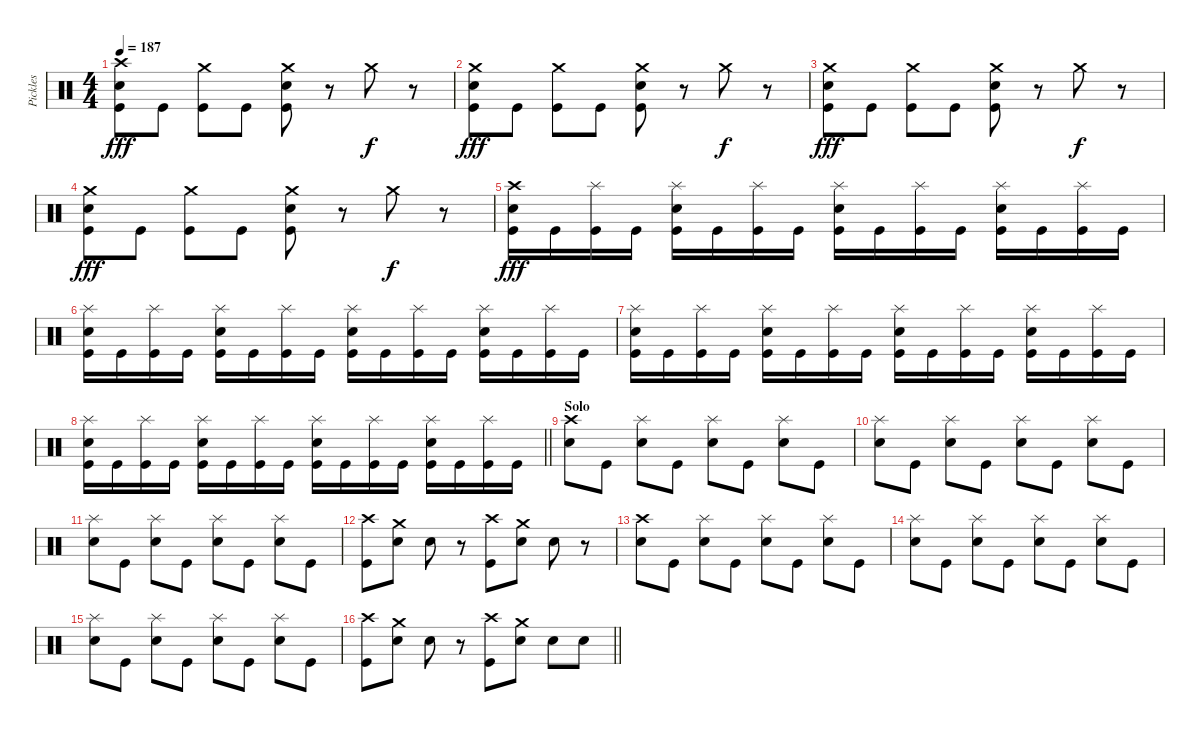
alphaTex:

\track ("Pickles" "Pickles") {instrument percussion}
\staff {score}
\articulation defaults
\ts (4 4)
\tempo 187
\clef neutral
\ks c
("Crash high (hit)" "Snare (hit) 2" "Kick (hit)").8{dy fff} "Kick (hit)".8 ("Crash medium (hit)" "Kick (hit)").8 "Kick (hit)".8 ("Crash medium (hit)" "Snare (hit) 2" "Kick (hit)").8 r.8 "Crash medium (hit)".8{dy f} r.8 |
("Crash medium (hit)" "Snare (hit) 2" "Kick (hit)").8{dy fff} "Kick (hit)".8 ("Crash medium (hit)" "Kick (hit)").8 "Kick (hit)".8 ("Crash medium (hit)" "Snare (hit) 2" "Kick (hit)").8 r.8 "Crash medium (hit)".8{dy f} r.8 |
("Crash medium (hit)" "Snare (hit) 2" "Kick (hit)").8{dy fff} "Kick (hit)".8 ("Crash medium (hit)" "Kick (hit)").8 "Kick (hit)".8 ("Crash medium (hit)" "Snare (hit) 2" "Kick (hit)").8 r.8 "Crash medium (hit)".8{dy f} r.8 |
("Crash medium (hit)" "Snare (hit) 2" "Kick (hit)").8{dy fff} "Kick (hit)".8 ("Crash medium (hit)" "Kick (hit)").8 "Kick (hit)".8 ("Crash medium (hit)" "Snare (hit) 2" "Kick (hit)").8 r.8 "Crash medium (hit)".8{dy f} r.8 |
("Crash high (hit)" "Snare (hit) 2" "Kick (hit)").16{dy fff} "Kick (hit)".16 ("Splash (hit)" "Kick (hit)").16 "Kick (hit)".16 ("Splash (hit)" "Snare (hit) 2" "Kick (hit)").16 "Kick (hit)".16 ("Splash (hit)" "Kick (hit)").16 "Kick (hit)".16 ("Splash (hit)" "Snare (hit) 2" "Kick (hit)").16 "Kick (hit)".16 ("Splash (hit)" "Kick (hit)").16 "Kick (hit)".16 ("Splash (hit)" "Snare (hit) 2" "Kick (hit)").16 "Kick (hit)".16 ("Splash (hit)" "Kick (hit)").16 "Kick (hit)".16 |
("Splash (hit)" "Snare (hit) 2" "Kick (hit)").16 "Kick (hit)".16 ("Splash (hit)" "Kick (hit)").16 "Kick (hit)".16 ("Splash (hit)" "Snare (hit) 2" "Kick (hit)").16 "Kick (hit)".16 ("Splash (hit)" "Kick (hit)").16 "Kick (hit)".16 ("Splash (hit)" "Snare (hit) 2" "Kick (hit)").16 "Kick (hit)".16 ("Splash (hit)" "Kick (hit)").16 "Kick (hit)".16 ("Splash (hit)" "Snare (hit) 2" "Kick (hit)").16 "Kick (hit)".16 ("Splash (hit)" "Kick (hit)").16 "Kick (hit)".16 |
("Splash (hit)" "Snare (hit) 2" "Kick (hit)").16 "Kick (hit)".16 ("Splash (hit)" "Kick (hit)").16 "Kick (hit)".16 ("Splash (hit)" "Snare (hit) 2" "Kick (hit)").16 "Kick (hit)".16 ("Splash (hit)" "Kick (hit)").16 "Kick (hit)".16 ("Splash (hit)" "Snare (hit) 2" "Kick (hit)").16 "Kick (hit)".16 ("Splash (hit)" "Kick (hit)").16 "Kick (hit)".16 ("Splash (hit)" "Snare (hit) 2" "Kick (hit)").16 "Kick (hit)".16 ("Splash (hit)" "Kick (hit)").16 "Kick (hit)".16 |
\barLineRight lightlight
("Splash (hit)" "Snare (hit) 2" "Kick (hit)").16 "Kick (hit)".16 ("Splash (hit)" "Kick (hit)").16 "Kick (hit)".16 ("Splash (hit)" "Snare (hit) 2" "Kick (hit)").16 "Kick (hit)".16 ("Splash (hit)" "Kick (hit)").16 "Kick (hit)".16 ("Splash (hit)" "Snare (hit) 2" "Kick (hit)").16 "Kick (hit)".16 ("Splash (hit)" "Kick (hit)").16 "Kick (hit)".16 ("Splash (hit)" "Snare (hit) 2" "Kick (hit)").16 "Kick (hit)".16 ("Splash (hit)" "Kick (hit)").16 "Kick (hit)".16 |
\section ("" "Solo")
("Crash high (hit)" "Snare (hit) 2").8 "Kick (hit)".8 ("Splash (hit)" "Snare (hit) 2").8 "Kick (hit)".8 ("Splash (hit)" "Snare (hit) 2").8 "Kick (hit)".8 ("Splash (hit)" "Snare (hit) 2").8 "Kick (hit)".8 |
("Splash (hit)" "Snare (hit) 2").8 "Kick (hit)".8 ("Splash (hit)" "Snare (hit) 2").8 "Kick (hit)".8 ("Splash (hit)" "Snare (hit) 2").8 "Kick (hit)".8 ("Splash (hit)" "Snare (hit) 2").8 "Kick (hit)".8 |
("Splash (hit)" "Snare (hit) 2").8 "Kick (hit)".8 ("Splash (hit)" "Snare (hit) 2").8 "Kick (hit)".8 ("Splash (hit)" "Snare (hit) 2").8 "Kick (hit)".8 ("Splash (hit)" "Snare (hit) 2").8 "Kick (hit)".8 |
("Crash high (hit)" "Kick (hit)").8 ("Crash medium (hit)" "Snare (hit) 2").8 "Snare (hit) 2".8 r.8 ("Crash high (hit)" "Kick (hit)").8 ("Crash medium (hit)" "Snare (hit) 2").8 "Snare (hit) 2".8 r.8 |
("Crash high (hit)" "Snare (hit) 2").8 "Kick (hit)".8 ("Splash (hit)" "Snare (hit) 2").8 "Kick (hit)".8 ("Splash (hit)" "Snare (hit) 2").8 "Kick (hit)".8 ("Splash (hit)" "Snare (hit) 2").8 "Kick (hit)".8 |
("Splash (hit)" "Snare (hit) 2").8 "Kick (hit)".8 ("Splash (hit)" "Snare (hit) 2").8 "Kick (hit)".8 ("Splash (hit)" "Snare (hit) 2").8 "Kick (hit)".8 ("Splash (hit)" "Snare (hit) 2").8 "Kick (hit)".8 |
("Splash (hit)" "Snare (hit) 2").8 "Kick (hit)".8 ("Splash (hit)" "Snare (hit) 2").8 "Kick (hit)".8 ("Splash (hit)" "Snare (hit) 2").8 "Kick (hit)".8 ("Splash (hit)" "Snare (hit) 2").8 "Kick (hit)".8 |
\barLineRight lightlight
("Crash high (hit)" "Kick (hit)").8 ("Crash medium (hit)" "Snare (hit) 2").8 "Snare (hit) 2".8 r.8 ("Crash high (hit)" "Kick (hit)").8 ("Crash medium (hit)" "Snare (hit) 2").8 "Snare (hit) 2".8 "Snare (hit) 2".8
